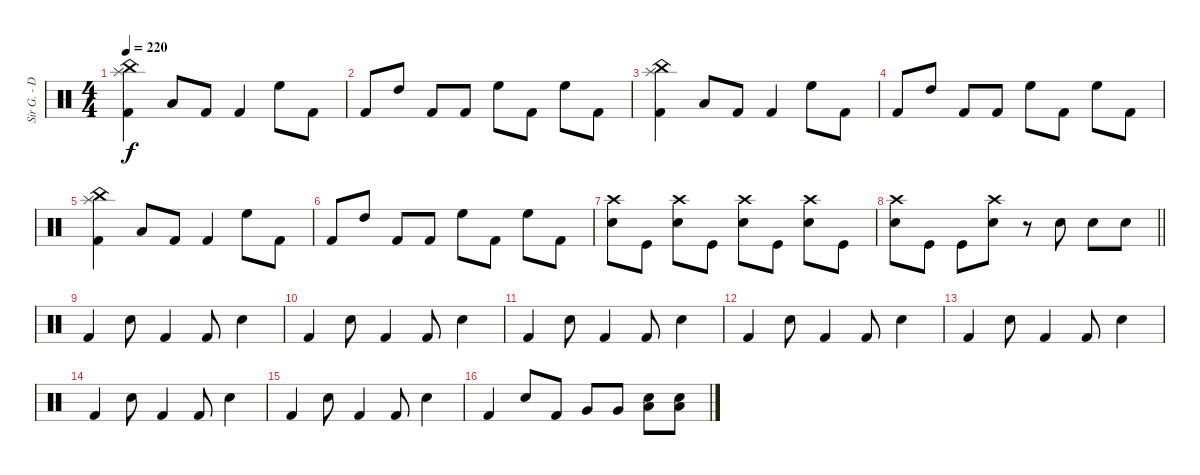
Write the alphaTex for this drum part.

\track ("Sir G. - Drums" "Sir G. - D") {instrument percussion}
\staff {score}
\articulation defaults
\ts (4 4)
\tempo 220
\clef neutral
\ks c
("China (hit)" "Splash (hit)" "Kick (hit) 2").4{dy f} "Low Tom (hit)".8 "Kick (hit) 2".8 "Kick (hit) 2".4 "High Floor Tom (hit)".8 "Kick (hit) 2".8 |
"Kick (hit) 2".8 "High Tom (hit)".8 "Kick (hit) 2".8 "Kick (hit) 2".8 "High Floor Tom (hit)".8 "Kick (hit) 2".8 "High Floor Tom (hit)".8 "Kick (hit) 2".8 |
("China (hit)" "Splash (hit)" "Kick (hit) 2").4 "Low Tom (hit)".8 "Kick (hit) 2".8 "Kick (hit) 2".4 "High Floor Tom (hit)".8 "Kick (hit) 2".8 |
"Kick (hit) 2".8 "High Tom (hit)".8 "Kick (hit) 2".8 "Kick (hit) 2".8 "High Floor Tom (hit)".8 "Kick (hit) 2".8 "High Floor Tom (hit)".8 "Kick (hit) 2".8 |
("China (hit)" "Splash (hit)" "Kick (hit) 2").4 "Low Tom (hit)".8 "Kick (hit) 2".8 "Kick (hit) 2".4 "High Floor Tom (hit)".8 "Kick (hit) 2".8 |
"Kick (hit) 2".8 "High Tom (hit)".8 "Kick (hit) 2".8 "Kick (hit) 2".8 "High Floor Tom (hit)".8 "Kick (hit) 2".8 "High Floor Tom (hit)".8 "Kick (hit) 2".8 |
("Crash high (hit)" "Snare (hit) 2").8 "Kick (hit)".8 ("Crash high (hit)" "Snare (hit) 2").8 "Kick (hit)".8 ("Crash high (hit)" "Snare (hit) 2").8 "Kick (hit)".8 ("Crash high (hit)" "Snare (hit) 2").8 "Kick (hit)".8 |
\barLineRight lightlight
("Crash high (hit)" "Snare (hit) 2").8 "Kick (hit)".8 "Kick (hit)".8 ("Crash high (hit)" "Snare (hit) 2").8 r.8 "Snare (hit) 2".8 "Snare (hit) 2".8 "Snare (hit) 2".8 |
"Kick (hit) 2".4 "Snare (hit) 2".8 "Kick (hit) 2".4 "Kick (hit) 2".8 "Snare (hit) 2".4 |
"Kick (hit) 2".4 "Snare (hit) 2".8 "Kick (hit) 2".4 "Kick (hit) 2".8 "Snare (hit) 2".4 |
"Kick (hit) 2".4 "Snare (hit) 2".8 "Kick (hit) 2".4 "Kick (hit) 2".8 "Snare (hit) 2".4 |
"Kick (hit) 2".4 "Snare (hit) 2".8 "Kick (hit) 2".4 "Kick (hit) 2".8 "Snare (hit) 2".4 |
"Kick (hit) 2".4 "Snare (hit) 2".8 "Kick (hit) 2".4 "Kick (hit) 2".8 "Snare (hit) 2".4 |
"Kick (hit) 2".4 "Snare (hit) 2".8 "Kick (hit) 2".4 "Kick (hit) 2".8 "Snare (hit) 2".4 |
"Kick (hit) 2".4 "Snare (hit) 2".8 "Kick (hit) 2".4 "Kick (hit) 2".8 "Snare (hit) 2".4 |
"Kick (hit) 2".4 "Snare (hit) 2".8 "Kick (hit) 2".8 "Very Low Tom (hit)".8 "Very Low Tom (hit)".8 ("Snare (hit) 2" "Low Floor Tom (hit)").8 ("Snare (hit) 2" "Low Floor Tom (hit)").8
